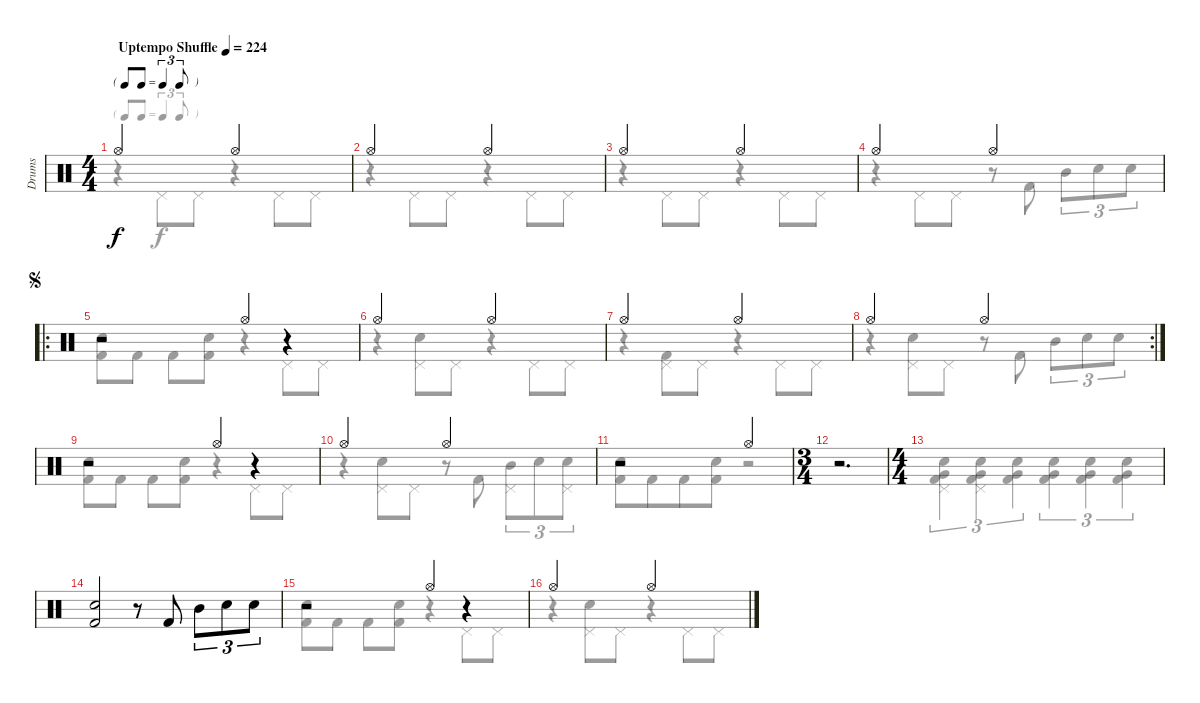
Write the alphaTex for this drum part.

\track ("Drums" "Drums") {instrument percussion}
\staff {score}
\articulation defaults
\voice
\ts (4 4)
\tf triplet8th
\tempo (224 "Uptempo Shuffle")
\clef neutral
\ks c "Hi-Hat (open)".2{dy f} "Hi-Hat (open)".2
|
"Hi-Hat (open)".2 "Hi-Hat (open)".2 |
"Hi-Hat (open)".2 "Hi-Hat (open)".2 |
"Hi-Hat (open)".2 "Hi-Hat (open)".2 |
\ro
\jump segno
r.2 "Hi-Hat (open)".4 r.4 |
"Hi-Hat (open)".2 "Hi-Hat (open)".2 |
"Hi-Hat (open)".2 "Hi-Hat (open)".2 |
\rc 2 "Hi-Hat (open)".2 "Hi-Hat (open)".2
|
r.2 "Hi-Hat (open)".4 r.4 |
"Hi-Hat (open)".2 "Hi-Hat (open)".2 |
r.2 "Hi-Hat (open)".2 |
\ts (3 4)
r.2{d} |
\ts (4 4)
|
("Electric Snare (hit)" "Kick (hit) 2").2 r.8 "Kick (hit) 2".8 "Mid Tom (hit)".8{tu (3 2)} "Electric Snare (hit)".8{tu (3 2)} "Electric Snare (hit)".8{tu (3 2)} |
r.2 "Hi-Hat (open)".4 r.4 |
"Hi-Hat (open)".2 "Hi-Hat (open)".2
\voice
\clef neutral
\ottava regular
\simile none
\ks c
r.4{dy f} "Pedal Hi-Hat (hit)".8 "Pedal Hi-Hat (hit)".8 r.4 "Pedal Hi-Hat (hit)".8 "Pedal Hi-Hat (hit)".8 |
r.4 "Pedal Hi-Hat (hit)".8 "Pedal Hi-Hat (hit)".8 r.4 "Pedal Hi-Hat (hit)".8 "Pedal Hi-Hat (hit)".8 |
r.4 "Pedal Hi-Hat (hit)".8 "Pedal Hi-Hat (hit)".8 r.4 "Pedal Hi-Hat (hit)".8 "Pedal Hi-Hat (hit)".8 |
r.4 "Pedal Hi-Hat (hit)".8 "Pedal Hi-Hat (hit)".8 r.8 "Kick (hit) 2".8 "Mid Tom (hit)".8{tu (3 2)} "Electric Snare (hit)".8{tu (3 2)} "Electric Snare (hit)".8{tu (3 2)} |
("Electric Snare (hit)" "Kick (hit) 2").8 "Kick (hit) 2".8 "Kick (hit) 2".8 ("Electric Snare (hit)" "Kick (hit) 2").8 r.4 "Pedal Hi-Hat (hit)".8 "Pedal Hi-Hat (hit)".8 |
r.4 ("Electric Snare (hit)" "Pedal Hi-Hat (hit)").8 "Pedal Hi-Hat (hit)".8 r.4 "Pedal Hi-Hat (hit)".8 "Pedal Hi-Hat (hit)".8 |
r.4 ("Kick (hit) 2" "Pedal Hi-Hat (hit)").8 "Pedal Hi-Hat (hit)".8 r.4 "Pedal Hi-Hat (hit)".8 "Pedal Hi-Hat (hit)".8 |
r.4 ("Electric Snare (hit)" "Pedal Hi-Hat (hit)").8 "Pedal Hi-Hat (hit)".8 r.8 "Kick (hit) 2".8 "Mid Tom (hit)".8{tu (3 2)} "Electric Snare (hit)".8{tu (3 2)} "Electric Snare (hit)".8{tu (3 2)} |
("Electric Snare (hit)" "Kick (hit) 2").8 "Kick (hit) 2".8 "Kick (hit) 2".8 ("Electric Snare (hit)" "Kick (hit) 2").8 r.4 "Pedal Hi-Hat (hit)".8 "Pedal Hi-Hat (hit)".8 |
r.4 ("Electric Snare (hit)" "Pedal Hi-Hat (hit)").8 "Pedal Hi-Hat (hit)".8 r.8 "Kick (hit) 2".8 ("Mid Tom (hit)" "Pedal Hi-Hat (hit)").8{tu (3 2)} "Electric Snare (hit)".8{tu (3 2)} ("Electric Snare (hit)" "Pedal Hi-Hat (hit)").8{tu (3 2)} |
("Electric Snare (hit)" "Kick (hit) 2").8 "Kick (hit) 2".8{beam merge} "Kick (hit) 2".8 ("Electric Snare (hit)" "Kick (hit) 2").8 r.2 |
|
("Electric Snare (hit)" "Very Low Tom (hit)" "Kick (hit) 2" "Pedal Hi-Hat (hit)").4{tu (3 2)} ("Electric Snare (hit)" "Very Low Tom (hit)" "Kick (hit) 2" "Pedal Hi-Hat (hit)").4{tu (3 2)} ("Electric Snare (hit)" "Very Low Tom (hit)" "Kick (hit) 2").4{tu (3 2)} ("Electric Snare (hit)" "Very Low Tom (hit)" "Kick (hit) 2").4{tu (3 2)} ("Electric Snare (hit)" "Very Low Tom (hit)" "Kick (hit) 2").4{tu (3 2)} ("Electric Snare (hit)" "Very Low Tom (hit)" "Kick (hit) 2").4{tu (3 2)} |
|
("Electric Snare (hit)" "Kick (hit) 2").8 "Kick (hit) 2".8 "Kick (hit) 2".8 ("Electric Snare (hit)" "Kick (hit) 2").8 r.4 "Pedal Hi-Hat (hit)".8 "Pedal Hi-Hat (hit)".8 |
r.4 ("Electric Snare (hit)" "Pedal Hi-Hat (hit)").8 "Pedal Hi-Hat (hit)".8 r.4 "Pedal Hi-Hat (hit)".8 "Pedal Hi-Hat (hit)".8
